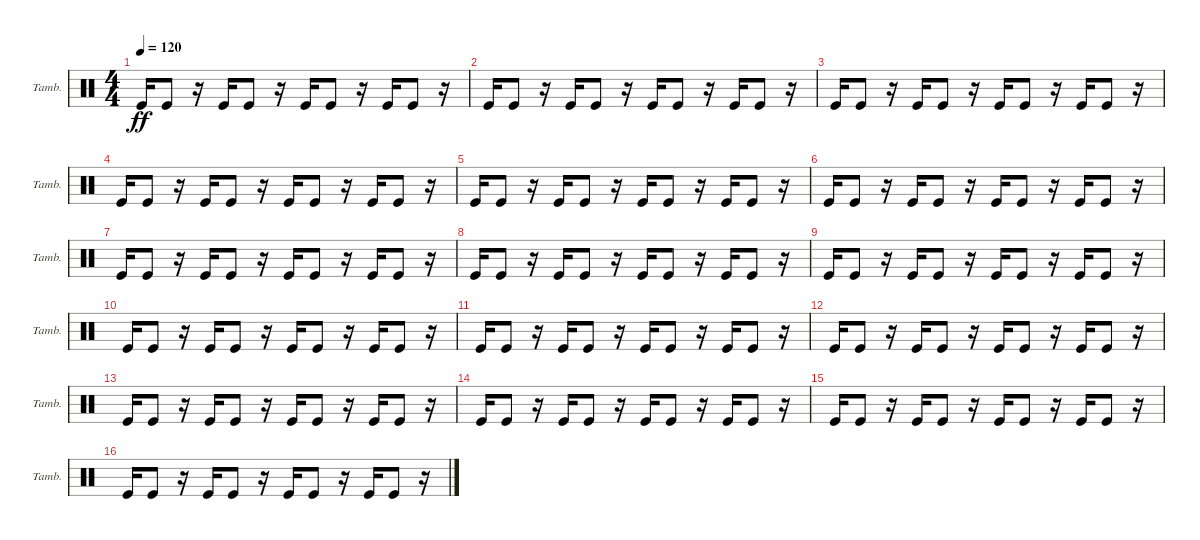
\bracketExtendMode groupsimilarinstruments
\singleTrackTrackNamePolicy allsystems
\multiTrackTrackNamePolicy allsystems
\firstSystemTrackNameOrientation horizontal
\otherSystemsTrackNameOrientation horizontal
\track ("Tambourine" "Tamb.") {instrument percussion}
\staff {score}
\articulation defaults
\ts (4 4)
\tempo 120
\clef neutral
\scale
0.333333
\ks c "Kick (hit)".16{dy ff} "Kick (hit)".8
r.16 "Kick (hit)".16 "Kick (hit)".8 r.16 "Kick (hit)".16 "Kick (hit)".8 r.16 "Kick (hit)".16 "Kick (hit)".8 r.16 |
\scale
0.333333 "Kick (hit)".16 "Kick (hit)".8 r.16 "Kick (hit)".16 "Kick (hit)".8 r.16 "Kick (hit)".16 "Kick (hit)".8 r.16 "Kick (hit)".16 "Kick (hit)".8 r.16 |
\scale
0.333333 "Kick (hit)".16 "Kick (hit)".8 r.16 "Kick (hit)".16 "Kick (hit)".8 r.16 "Kick (hit)".16 "Kick (hit)".8 r.16 "Kick (hit)".16 "Kick (hit)".8 r.16 |
\scale
0.333333 "Kick (hit)".16 "Kick (hit)".8 r.16 "Kick (hit)".16 "Kick (hit)".8 r.16 "Kick (hit)".16 "Kick (hit)".8 r.16 "Kick (hit)".16 "Kick (hit)".8 r.16 |
\scale
0.333333 "Kick (hit)".16 "Kick (hit)".8 r.16 "Kick (hit)".16 "Kick (hit)".8 r.16 "Kick (hit)".16 "Kick (hit)".8 r.16 "Kick (hit)".16 "Kick (hit)".8 r.16 |
\scale
0.333333 "Kick (hit)".16 "Kick (hit)".8 r.16 "Kick (hit)".16 "Kick (hit)".8 r.16 "Kick (hit)".16 "Kick (hit)".8 r.16 "Kick (hit)".16 "Kick (hit)".8 r.16 |
\scale
0.333333 "Kick (hit)".16 "Kick (hit)".8 r.16 "Kick (hit)".16 "Kick (hit)".8 r.16 "Kick (hit)".16 "Kick (hit)".8 r.16 "Kick (hit)".16 "Kick (hit)".8 r.16 |
\scale
0.333333 "Kick (hit)".16 "Kick (hit)".8 r.16 "Kick (hit)".16 "Kick (hit)".8 r.16 "Kick (hit)".16 "Kick (hit)".8 r.16 "Kick (hit)".16 "Kick (hit)".8 r.16 |
\scale
0.333333 "Kick (hit)".16 "Kick (hit)".8 r.16 "Kick (hit)".16 "Kick (hit)".8 r.16 "Kick (hit)".16 "Kick (hit)".8 r.16 "Kick (hit)".16 "Kick (hit)".8 r.16 |
\scale
0.333333 "Kick (hit)".16 "Kick (hit)".8 r.16 "Kick (hit)".16 "Kick (hit)".8 r.16 "Kick (hit)".16 "Kick (hit)".8 r.16 "Kick (hit)".16 "Kick (hit)".8 r.16 |
\scale
0.333333 "Kick (hit)".16 "Kick (hit)".8 r.16 "Kick (hit)".16 "Kick (hit)".8 r.16 "Kick (hit)".16 "Kick (hit)".8 r.16 "Kick (hit)".16 "Kick (hit)".8 r.16 |
\scale
0.333333 "Kick (hit)".16 "Kick (hit)".8 r.16 "Kick (hit)".16 "Kick (hit)".8 r.16 "Kick (hit)".16 "Kick (hit)".8 r.16 "Kick (hit)".16 "Kick (hit)".8 r.16 |
\scale
0.333333 "Kick (hit)".16 "Kick (hit)".8 r.16 "Kick (hit)".16 "Kick (hit)".8 r.16 "Kick (hit)".16 "Kick (hit)".8 r.16 "Kick (hit)".16 "Kick (hit)".8 r.16 |
\scale
0.333333 "Kick (hit)".16 "Kick (hit)".8 r.16 "Kick (hit)".16 "Kick (hit)".8 r.16 "Kick (hit)".16 "Kick (hit)".8 r.16 "Kick (hit)".16 "Kick (hit)".8 r.16 |
\scale
0.333333 "Kick (hit)".16 "Kick (hit)".8 r.16 "Kick (hit)".16 "Kick (hit)".8 r.16 "Kick (hit)".16 "Kick (hit)".8 r.16 "Kick (hit)".16 "Kick (hit)".8 r.16 |
\scale
0.333333 "Kick (hit)".16 "Kick (hit)".8 r.16 "Kick (hit)".16 "Kick (hit)".8 r.16 "Kick (hit)".16 "Kick (hit)".8 r.16 "Kick (hit)".16 "Kick (hit)".8 r.16
